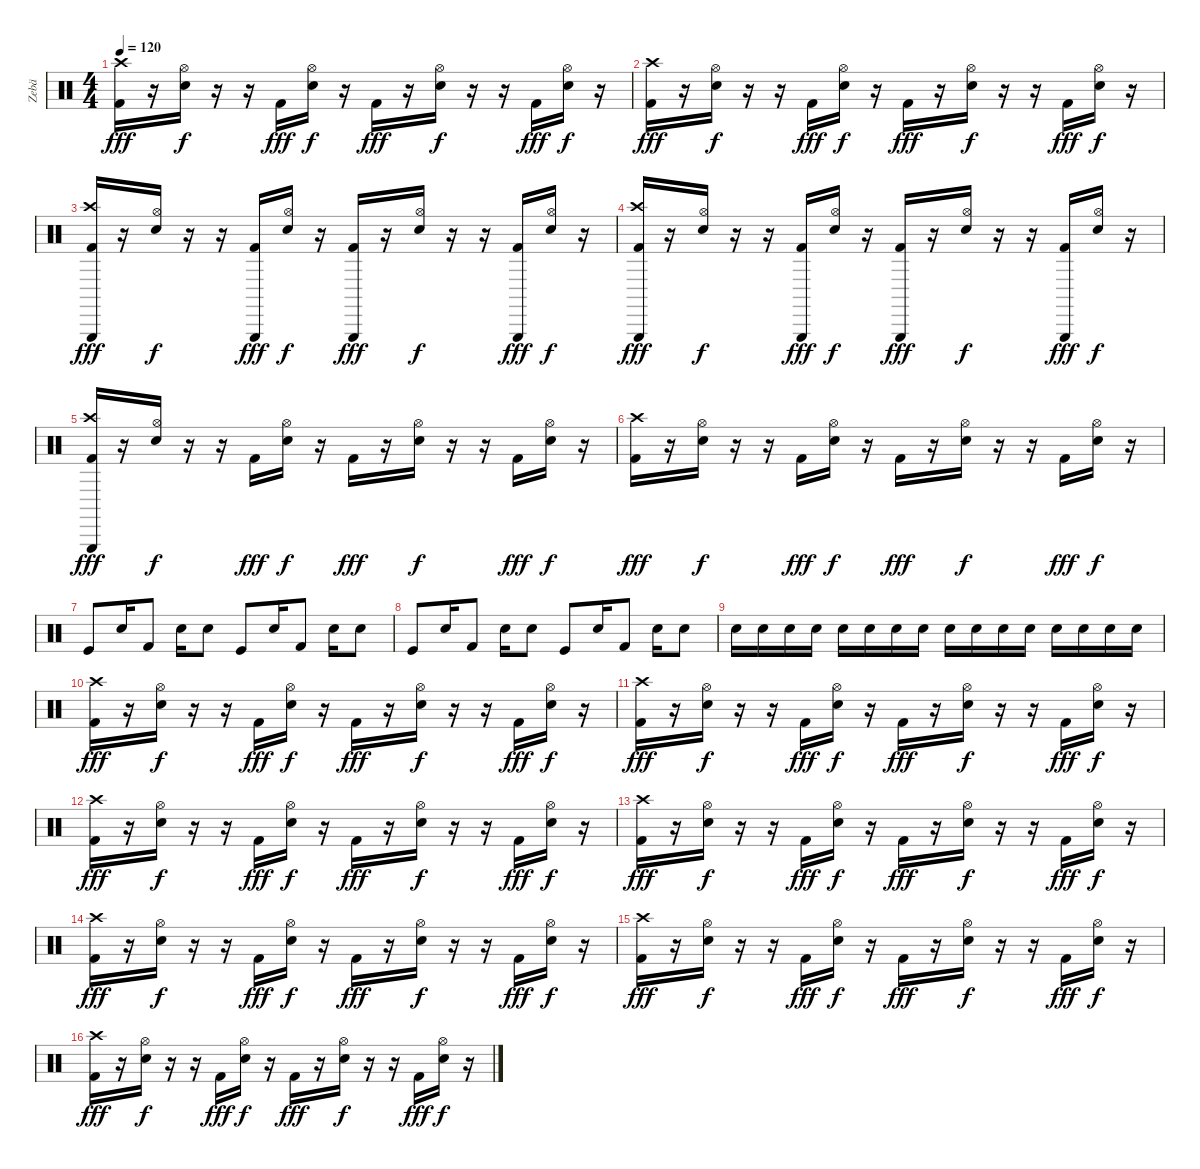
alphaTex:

\track ("Zebä" "Zebä") {instrument percussion}
\staff {score}
\articulation defaults
\ts (4 4)
\tempo 120
\clef neutral
\ks c
("Kick (hit) 2" "Crash high (hit)").16{dy fff} r.16 ("Electric Snare (hit)" "Hi-Hat (open)").16{dy f} r.16 r.16 "Kick (hit) 2".16{dy fff} ("Electric Snare (hit)" "Hi-Hat (open)").16{dy f} r.16 "Kick (hit) 2".16{dy fff} r.16 ("Electric Snare (hit)" "Hi-Hat (open)").16{dy f} r.16 r.16 "Kick (hit) 2".16{dy fff} ("Electric Snare (hit)" "Hi-Hat (open)").16{dy f} r.16 |
("Kick (hit) 2" "Crash high (hit)").16{dy fff} r.16 ("Electric Snare (hit)" "Hi-Hat (open)").16{dy f} r.16 r.16 "Kick (hit) 2".16{dy fff} ("Electric Snare (hit)" "Hi-Hat (open)").16{dy f} r.16 "Kick (hit) 2".16{dy fff} r.16 ("Electric Snare (hit)" "Hi-Hat (open)").16{dy f} r.16 r.16 "Kick (hit) 2".16{dy fff} ("Electric Snare (hit)" "Hi-Hat (open)").16{dy f} r.16 |
("Kick (hit) 2" "Triangle (hit)" "Crash high (hit)").16{dy fff} r.16 ("Electric Snare (hit)" "Hi-Hat (open)").16{dy f} r.16 r.16 ("Kick (hit) 2" "Triangle (hit)").16{dy fff} ("Electric Snare (hit)" "Hi-Hat (open)").16{dy f} r.16 ("Kick (hit) 2" "Triangle (hit)").16{dy fff} r.16 ("Electric Snare (hit)" "Hi-Hat (open)").16{dy f} r.16 r.16 ("Kick (hit) 2" "Triangle (hit)").16{dy fff} ("Electric Snare (hit)" "Hi-Hat (open)").16{dy f} r.16 |
("Kick (hit) 2" "Triangle (hit)" "Crash high (hit)").16{dy fff} r.16 ("Electric Snare (hit)" "Hi-Hat (open)").16{dy f} r.16 r.16 ("Kick (hit) 2" "Triangle (hit)").16{dy fff} ("Electric Snare (hit)" "Hi-Hat (open)").16{dy f} r.16 ("Kick (hit) 2" "Triangle (hit)").16{dy fff} r.16 ("Electric Snare (hit)" "Hi-Hat (open)").16{dy f} r.16 r.16 ("Kick (hit) 2" "Triangle (hit)").16{dy fff} ("Electric Snare (hit)" "Hi-Hat (open)").16{dy f} r.16 |
("Kick (hit) 2" "Triangle (hit)" "Crash high (hit)").16{dy fff} r.16 ("Electric Snare (hit)" "Hi-Hat (open)").16{dy f} r.16 r.16 "Kick (hit) 2".16{dy fff} ("Electric Snare (hit)" "Hi-Hat (open)").16{dy f} r.16 "Kick (hit) 2".16{dy fff} r.16 ("Electric Snare (hit)" "Hi-Hat (open)").16{dy f} r.16 r.16 "Kick (hit) 2".16{dy fff} ("Electric Snare (hit)" "Hi-Hat (open)").16{dy f} r.16 |
("Kick (hit) 2" "Crash high (hit)").16{dy fff} r.16 ("Electric Snare (hit)" "Hi-Hat (open)").16{dy f} r.16 r.16 "Kick (hit) 2".16{dy fff} ("Electric Snare (hit)" "Hi-Hat (open)").16{dy f} r.16 "Kick (hit) 2".16{dy fff} r.16 ("Electric Snare (hit)" "Hi-Hat (open)").16{dy f} r.16 r.16 "Kick (hit) 2".16{dy fff} ("Electric Snare (hit)" "Hi-Hat (open)").16{dy f} r.16 |
"Kick (hit)".8 "Snare (hit) 2".16 "Kick (hit) 2".8 "Electric Snare (hit)".16 "Snare (hit) 2".8 "Kick (hit)".8 "Snare (hit) 2".16 "Kick (hit) 2".8 "Electric Snare (hit)".16 "Snare (hit) 2".8 |
"Kick (hit)".8 "Snare (hit) 2".16 "Kick (hit) 2".8 "Electric Snare (hit)".16 "Snare (hit) 2".8 "Kick (hit)".8 "Snare (hit) 2".16 "Kick (hit) 2".8 "Electric Snare (hit)".16 "Snare (hit) 2".8 |
"Snare (hit) 2".16 "Snare (hit) 2".16 "Snare (hit) 2".16 "Snare (hit) 2".16 "Snare (hit) 2".16 "Snare (hit) 2".16 "Snare (hit) 2".16 "Snare (hit) 2".16 "Electric Snare (hit)".16 "Electric Snare (hit)".16 "Electric Snare (hit)".16 "Electric Snare (hit)".16 "Electric Snare (hit)".16 "Electric Snare (hit)".16 "Electric Snare (hit)".16 "Electric Snare (hit)".16 |
("Kick (hit) 2" "Crash high (hit)").16{dy fff} r.16 ("Electric Snare (hit)" "Hi-Hat (open)").16{dy f} r.16 r.16 "Kick (hit) 2".16{dy fff} ("Electric Snare (hit)" "Hi-Hat (open)").16{dy f} r.16 "Kick (hit) 2".16{dy fff} r.16 ("Electric Snare (hit)" "Hi-Hat (open)").16{dy f} r.16 r.16 "Kick (hit) 2".16{dy fff} ("Electric Snare (hit)" "Hi-Hat (open)").16{dy f} r.16 |
("Kick (hit) 2" "Crash high (hit)").16{dy fff} r.16 ("Electric Snare (hit)" "Hi-Hat (open)").16{dy f} r.16 r.16 "Kick (hit) 2".16{dy fff} ("Electric Snare (hit)" "Hi-Hat (open)").16{dy f} r.16 "Kick (hit) 2".16{dy fff} r.16 ("Electric Snare (hit)" "Hi-Hat (open)").16{dy f} r.16 r.16 "Kick (hit) 2".16{dy fff} ("Electric Snare (hit)" "Hi-Hat (open)").16{dy f} r.16 |
("Kick (hit) 2" "Crash high (hit)").16{dy fff} r.16 ("Electric Snare (hit)" "Hi-Hat (open)").16{dy f} r.16 r.16 "Kick (hit) 2".16{dy fff} ("Electric Snare (hit)" "Hi-Hat (open)").16{dy f} r.16 "Kick (hit) 2".16{dy fff} r.16 ("Electric Snare (hit)" "Hi-Hat (open)").16{dy f} r.16 r.16 "Kick (hit) 2".16{dy fff} ("Electric Snare (hit)" "Hi-Hat (open)").16{dy f} r.16 |
("Kick (hit) 2" "Crash high (hit)").16{dy fff} r.16 ("Electric Snare (hit)" "Hi-Hat (open)").16{dy f} r.16 r.16 "Kick (hit) 2".16{dy fff} ("Electric Snare (hit)" "Hi-Hat (open)").16{dy f} r.16 "Kick (hit) 2".16{dy fff} r.16 ("Electric Snare (hit)" "Hi-Hat (open)").16{dy f} r.16 r.16 "Kick (hit) 2".16{dy fff} ("Electric Snare (hit)" "Hi-Hat (open)").16{dy f} r.16 |
("Kick (hit) 2" "Crash high (hit)").16{dy fff} r.16 ("Electric Snare (hit)" "Hi-Hat (open)").16{dy f} r.16 r.16 "Kick (hit) 2".16{dy fff} ("Electric Snare (hit)" "Hi-Hat (open)").16{dy f} r.16 "Kick (hit) 2".16{dy fff} r.16 ("Electric Snare (hit)" "Hi-Hat (open)").16{dy f} r.16 r.16 "Kick (hit) 2".16{dy fff} ("Electric Snare (hit)" "Hi-Hat (open)").16{dy f} r.16 |
("Kick (hit) 2" "Crash high (hit)").16{dy fff} r.16 ("Electric Snare (hit)" "Hi-Hat (open)").16{dy f} r.16 r.16 "Kick (hit) 2".16{dy fff} ("Electric Snare (hit)" "Hi-Hat (open)").16{dy f} r.16 "Kick (hit) 2".16{dy fff} r.16 ("Electric Snare (hit)" "Hi-Hat (open)").16{dy f} r.16 r.16 "Kick (hit) 2".16{dy fff} ("Electric Snare (hit)" "Hi-Hat (open)").16{dy f} r.16 |
("Kick (hit) 2" "Crash high (hit)").16{dy fff} r.16 ("Electric Snare (hit)" "Hi-Hat (open)").16{dy f} r.16 r.16 "Kick (hit) 2".16{dy fff} ("Electric Snare (hit)" "Hi-Hat (open)").16{dy f} r.16 "Kick (hit) 2".16{dy fff} r.16 ("Electric Snare (hit)" "Hi-Hat (open)").16{dy f} r.16 r.16 "Kick (hit) 2".16{dy fff} ("Electric Snare (hit)" "Hi-Hat (open)").16{dy f} r.16
